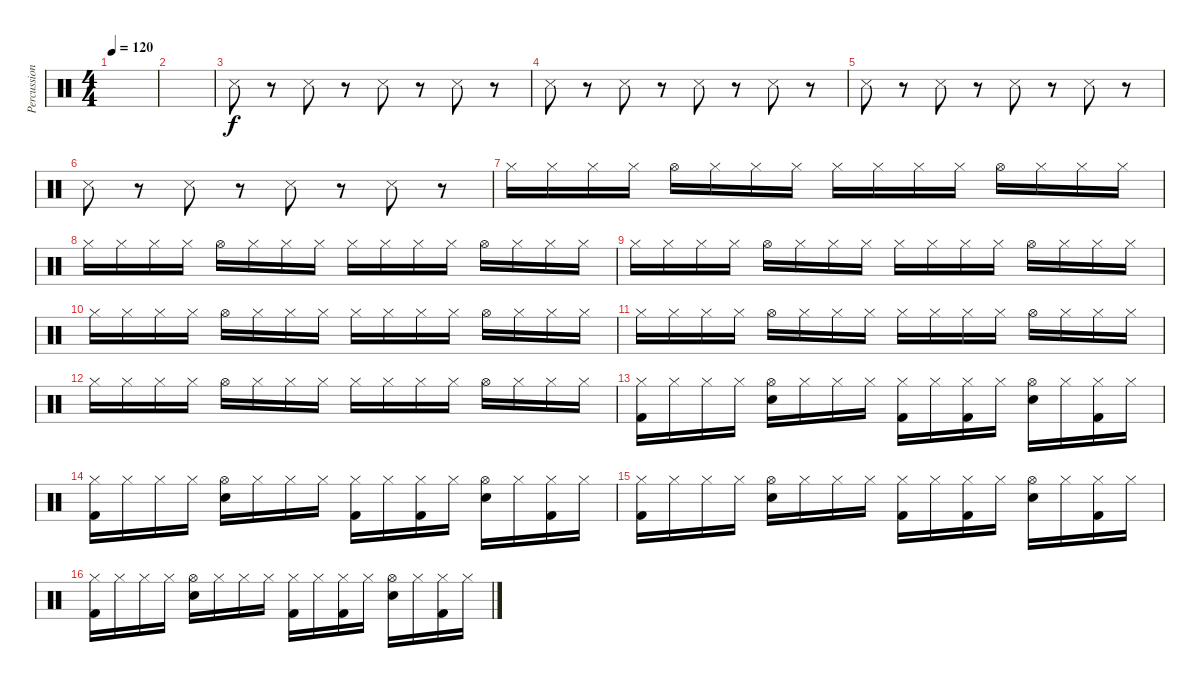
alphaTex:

\track ("Percussion" "Percussion") {instrument percussion}
\staff {score}
\articulation defaults
\ts (4 4)
\tempo 120
\clef neutral
\ks c
|
|
"Metronome (hit)".8 r.8 "Metronome (hit)".8 r.8 "Metronome (hit)".8 r.8 "Metronome (hit)".8 r.8 |
"Metronome (hit)".8 r.8 "Metronome (hit)".8 r.8 "Metronome (hit)".8 r.8 "Metronome (hit)".8 r.8 |
"Metronome (hit)".8 r.8 "Metronome (hit)".8 r.8 "Metronome (hit)".8 r.8 "Metronome (hit)".8 r.8 |
"Metronome (hit)".8 r.8 "Metronome (hit)".8 r.8 "Metronome (hit)".8 r.8 "Metronome (hit)".8 r.8 |
"Hi-Hat (closed)".16 "Hi-Hat (closed)".16 "Hi-Hat (closed)".16 "Hi-Hat (closed)".16 "Hi-Hat (open)".16 "Hi-Hat (closed)".16 "Hi-Hat (closed)".16 "Hi-Hat (closed)".16 "Hi-Hat (closed)".16 "Hi-Hat (closed)".16 "Hi-Hat (closed)".16 "Hi-Hat (closed)".16 "Hi-Hat (open)".16 "Hi-Hat (closed)".16 "Hi-Hat (closed)".16 "Hi-Hat (closed)".16 |
"Hi-Hat (closed)".16 "Hi-Hat (closed)".16 "Hi-Hat (closed)".16 "Hi-Hat (closed)".16 "Hi-Hat (open)".16 "Hi-Hat (closed)".16 "Hi-Hat (closed)".16 "Hi-Hat (closed)".16 "Hi-Hat (closed)".16 "Hi-Hat (closed)".16 "Hi-Hat (closed)".16 "Hi-Hat (closed)".16 "Hi-Hat (open)".16 "Hi-Hat (closed)".16 "Hi-Hat (closed)".16 "Hi-Hat (closed)".16 |
"Hi-Hat (closed)".16 "Hi-Hat (closed)".16 "Hi-Hat (closed)".16 "Hi-Hat (closed)".16 "Hi-Hat (open)".16 "Hi-Hat (closed)".16 "Hi-Hat (closed)".16 "Hi-Hat (closed)".16 "Hi-Hat (closed)".16 "Hi-Hat (closed)".16 "Hi-Hat (closed)".16 "Hi-Hat (closed)".16 "Hi-Hat (open)".16 "Hi-Hat (closed)".16 "Hi-Hat (closed)".16 "Hi-Hat (closed)".16 |
"Hi-Hat (closed)".16 "Hi-Hat (closed)".16 "Hi-Hat (closed)".16 "Hi-Hat (closed)".16 "Hi-Hat (open)".16 "Hi-Hat (closed)".16 "Hi-Hat (closed)".16 "Hi-Hat (closed)".16 "Hi-Hat (closed)".16 "Hi-Hat (closed)".16 "Hi-Hat (closed)".16 "Hi-Hat (closed)".16 "Hi-Hat (open)".16 "Hi-Hat (closed)".16 "Hi-Hat (closed)".16 "Hi-Hat (closed)".16 |
"Hi-Hat (closed)".16 "Hi-Hat (closed)".16 "Hi-Hat (closed)".16 "Hi-Hat (closed)".16 "Hi-Hat (open)".16 "Hi-Hat (closed)".16 "Hi-Hat (closed)".16 "Hi-Hat (closed)".16 "Hi-Hat (closed)".16 "Hi-Hat (closed)".16 "Hi-Hat (closed)".16 "Hi-Hat (closed)".16 "Hi-Hat (open)".16 "Hi-Hat (closed)".16 "Hi-Hat (closed)".16 "Hi-Hat (closed)".16 |
"Hi-Hat (closed)".16 "Hi-Hat (closed)".16 "Hi-Hat (closed)".16 "Hi-Hat (closed)".16 "Hi-Hat (open)".16 "Hi-Hat (closed)".16 "Hi-Hat (closed)".16 "Hi-Hat (closed)".16 "Hi-Hat (closed)".16 "Hi-Hat (closed)".16 "Hi-Hat (closed)".16 "Hi-Hat (closed)".16 "Hi-Hat (open)".16 "Hi-Hat (closed)".16 "Hi-Hat (closed)".16 "Hi-Hat (closed)".16 |
("Kick (hit) 2" "Hi-Hat (closed)").16 "Hi-Hat (closed)".16 "Hi-Hat (closed)".16 "Hi-Hat (closed)".16 ("Snare (hit) 2" "Hi-Hat (open)").16 "Hi-Hat (closed)".16 "Hi-Hat (closed)".16 "Hi-Hat (closed)".16 ("Kick (hit) 2" "Hi-Hat (closed)").16 "Hi-Hat (closed)".16 ("Kick (hit) 2" "Hi-Hat (closed)").16 "Hi-Hat (closed)".16 ("Snare (hit) 2" "Hi-Hat (open)").16 "Hi-Hat (closed)".16 ("Kick (hit) 2" "Hi-Hat (closed)").16 "Hi-Hat (closed)".16 |
("Kick (hit) 2" "Hi-Hat (closed)").16 "Hi-Hat (closed)".16 "Hi-Hat (closed)".16 "Hi-Hat (closed)".16 ("Snare (hit) 2" "Hi-Hat (open)").16 "Hi-Hat (closed)".16 "Hi-Hat (closed)".16 "Hi-Hat (closed)".16 ("Kick (hit) 2" "Hi-Hat (closed)").16 "Hi-Hat (closed)".16 ("Kick (hit) 2" "Hi-Hat (closed)").16 "Hi-Hat (closed)".16 ("Snare (hit) 2" "Hi-Hat (open)").16 "Hi-Hat (closed)".16 ("Kick (hit) 2" "Hi-Hat (closed)").16 "Hi-Hat (closed)".16 |
("Kick (hit) 2" "Hi-Hat (closed)").16 "Hi-Hat (closed)".16 "Hi-Hat (closed)".16 "Hi-Hat (closed)".16 ("Snare (hit) 2" "Hi-Hat (open)").16 "Hi-Hat (closed)".16 "Hi-Hat (closed)".16 "Hi-Hat (closed)".16 ("Kick (hit) 2" "Hi-Hat (closed)").16 "Hi-Hat (closed)".16 ("Kick (hit) 2" "Hi-Hat (closed)").16 "Hi-Hat (closed)".16 ("Snare (hit) 2" "Hi-Hat (open)").16 "Hi-Hat (closed)".16 ("Kick (hit) 2" "Hi-Hat (closed)").16 "Hi-Hat (closed)".16 |
("Kick (hit) 2" "Hi-Hat (closed)").16 "Hi-Hat (closed)".16 "Hi-Hat (closed)".16 "Hi-Hat (closed)".16 ("Snare (hit) 2" "Hi-Hat (open)").16 "Hi-Hat (closed)".16 "Hi-Hat (closed)".16 "Hi-Hat (closed)".16 ("Kick (hit) 2" "Hi-Hat (closed)").16 "Hi-Hat (closed)".16 ("Kick (hit) 2" "Hi-Hat (closed)").16 "Hi-Hat (closed)".16 ("Snare (hit) 2" "Hi-Hat (open)").16 "Hi-Hat (closed)".16 ("Kick (hit) 2" "Hi-Hat (closed)").16 "Hi-Hat (closed)".16
